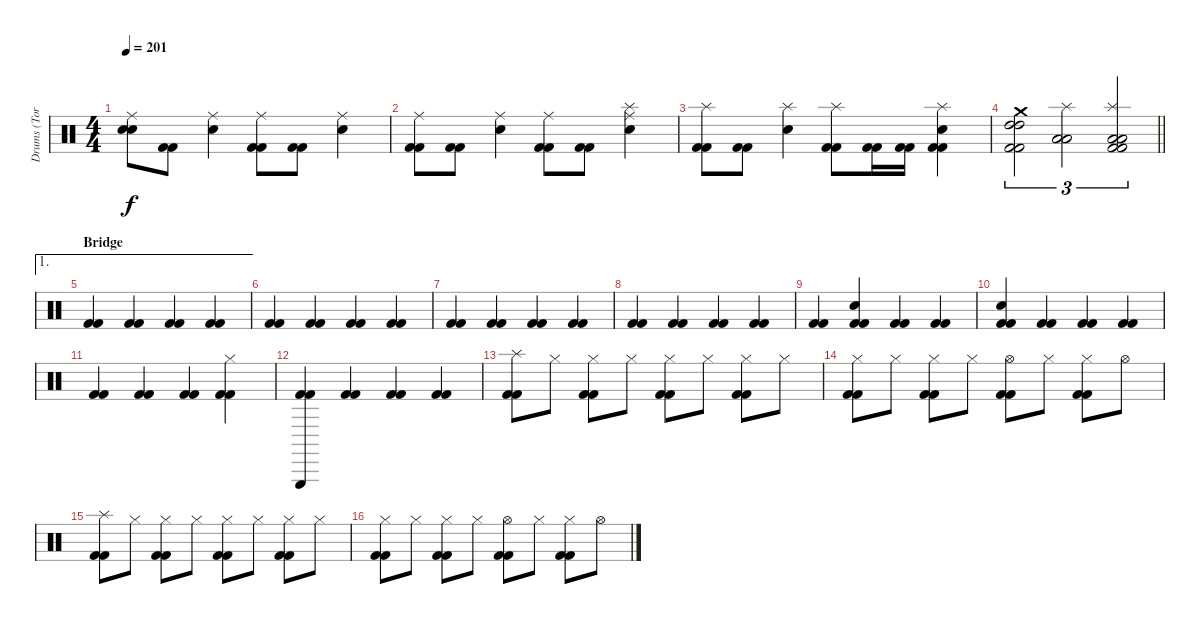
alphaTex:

\track ("Drums (Tora)" "Drums (Tor") {instrument percussion}
\staff {score}
\articulation defaults
\ts (4 4)
\tempo 201
\clef neutral
\ks c
("Ride (middle)" "Snare (hit)"{t} "Snare (hit)"{t}).8{dy f} ("Kick (hit) 2" "Kick (hit) 2").8 ("Ride (middle)" "Snare (hit) 2").4 ("Ride (middle)" "Kick (hit) 2" "Kick (hit) 2").8 ("Kick (hit) 2" "Kick (hit) 2").8 ("Ride (middle)" "Snare (hit) 2").4 |
("Ride (middle)" "Kick (hit) 2" "Kick (hit) 2").8 ("Kick (hit) 2" "Kick (hit) 2").8 ("Ride (middle)" "Snare (hit) 2").4 ("Ride (middle)" "Kick (hit) 2" "Kick (hit) 2").8 ("Kick (hit) 2" "Kick (hit) 2").8 ("Splash (hit)" "Ride (middle)" "Snare (hit) 2").4 |
("Splash (hit)" "Kick (hit) 2" "Kick (hit) 2").8 ("Kick (hit) 2" "Kick (hit) 2").8 ("Splash (hit)" "Snare (hit) 2").4 ("Splash (hit)" "Kick (hit) 2" "Kick (hit) 2").8 ("Kick (hit) 2" "Kick (hit) 2").16 ("Kick (hit) 2" "Kick (hit) 2").16 ("Splash (hit)" "Snare (hit) 2" "Kick (hit) 2" "Kick (hit) 2").4 |
\barLineRight lightlight
("High Tom (hit)" "High Tom (hit)" "Crash medium (hit)" "Kick (hit) 2" "Kick (hit) 2").2{tu (3 2)} ("Low Tom (hit)" "Low Tom (hit)" "Splash (hit)").2{tu (3 2)} ("Low Floor Tom (hit)" "Low Floor Tom (hit)" "Splash (hit)" "Kick (hit) 2" "Kick (hit) 2").2{tu (3 2)} |
\ae 1
\section ("" "Bridge")
("Kick (hit) 2" "Kick (hit) 2").4 ("Kick (hit) 2" "Kick (hit) 2").4 ("Kick (hit) 2" "Kick (hit) 2").4 ("Kick (hit) 2" "Kick (hit) 2").4 |
("Kick (hit) 2" "Kick (hit) 2").4 ("Kick (hit) 2" "Kick (hit) 2").4 ("Kick (hit) 2" "Kick (hit) 2").4 ("Kick (hit) 2" "Kick (hit) 2").4 |
("Kick (hit) 2" "Kick (hit) 2").4 ("Kick (hit) 2" "Kick (hit) 2").4 ("Kick (hit) 2" "Kick (hit) 2").4 ("Kick (hit) 2" "Kick (hit) 2").4 |
("Kick (hit) 2" "Kick (hit) 2").4 ("Kick (hit) 2" "Kick (hit) 2").4 ("Kick (hit) 2" "Kick (hit) 2").4 ("Kick (hit) 2" "Kick (hit) 2").4 |
("Kick (hit) 2" "Kick (hit) 2").4 ("Snare (hit) 2" "Kick (hit) 2" "Kick (hit) 2").4 ("Kick (hit) 2" "Kick (hit) 2").4 ("Kick (hit) 2" "Kick (hit) 2").4 |
("Snare (hit) 2" "Kick (hit) 2" "Kick (hit) 2").4 ("Kick (hit) 2" "Kick (hit) 2").4 ("Kick (hit) 2" "Kick (hit) 2").4 ("Kick (hit) 2" "Kick (hit) 2").4 |
("Kick (hit) 2" "Kick (hit) 2").4 ("Kick (hit) 2" "Kick (hit) 2").4 ("Kick (hit) 2" "Kick (hit) 2").4 ("Hi-Hat (closed)" "Kick (hit) 2" "Kick (hit) 2").4 |
("Triangle (hit)" "Kick (hit) 2" "Kick (hit) 2").4 ("Kick (hit) 2" "Kick (hit) 2").4 ("Kick (hit) 2" "Kick (hit) 2").4 ("Kick (hit) 2" "Kick (hit) 2").4 |
("Splash (hit)" "Kick (hit) 2" "Kick (hit) 2").8 "Hi-Hat (closed)".8 ("Hi-Hat (closed)" "Kick (hit) 2" "Kick (hit) 2").8 "Hi-Hat (closed)".8 ("Hi-Hat (closed)" "Kick (hit) 2" "Kick (hit) 2").8 "Hi-Hat (closed)".8 ("Hi-Hat (closed)" "Kick (hit) 2" "Kick (hit) 2").8 "Hi-Hat (closed)".8 |
("Hi-Hat (closed)" "Kick (hit) 2" "Kick (hit) 2").8 "Hi-Hat (closed)".8 ("Hi-Hat (closed)" "Kick (hit) 2" "Kick (hit) 2").8 "Hi-Hat (closed)".8 ("Hi-Hat (open)" "Kick (hit) 2" "Kick (hit) 2").8 "Hi-Hat (closed)".8 ("Hi-Hat (closed)" "Kick (hit) 2" "Kick (hit) 2").8 "Hi-Hat (open)".8 |
("Splash (hit)" "Kick (hit) 2" "Kick (hit) 2").8 "Hi-Hat (closed)".8 ("Hi-Hat (closed)" "Kick (hit) 2" "Kick (hit) 2").8 "Hi-Hat (closed)".8 ("Hi-Hat (closed)" "Kick (hit) 2" "Kick (hit) 2").8 "Hi-Hat (closed)".8 ("Hi-Hat (closed)" "Kick (hit) 2" "Kick (hit) 2").8 "Hi-Hat (closed)".8 |
("Hi-Hat (closed)" "Kick (hit) 2" "Kick (hit) 2").8 "Hi-Hat (closed)".8 ("Hi-Hat (closed)" "Kick (hit) 2" "Kick (hit) 2").8 "Hi-Hat (closed)".8 ("Hi-Hat (open)" "Kick (hit) 2" "Kick (hit) 2").8 "Hi-Hat (closed)".8 ("Hi-Hat (closed)" "Kick (hit) 2" "Kick (hit) 2").8 "Hi-Hat (open)".8
